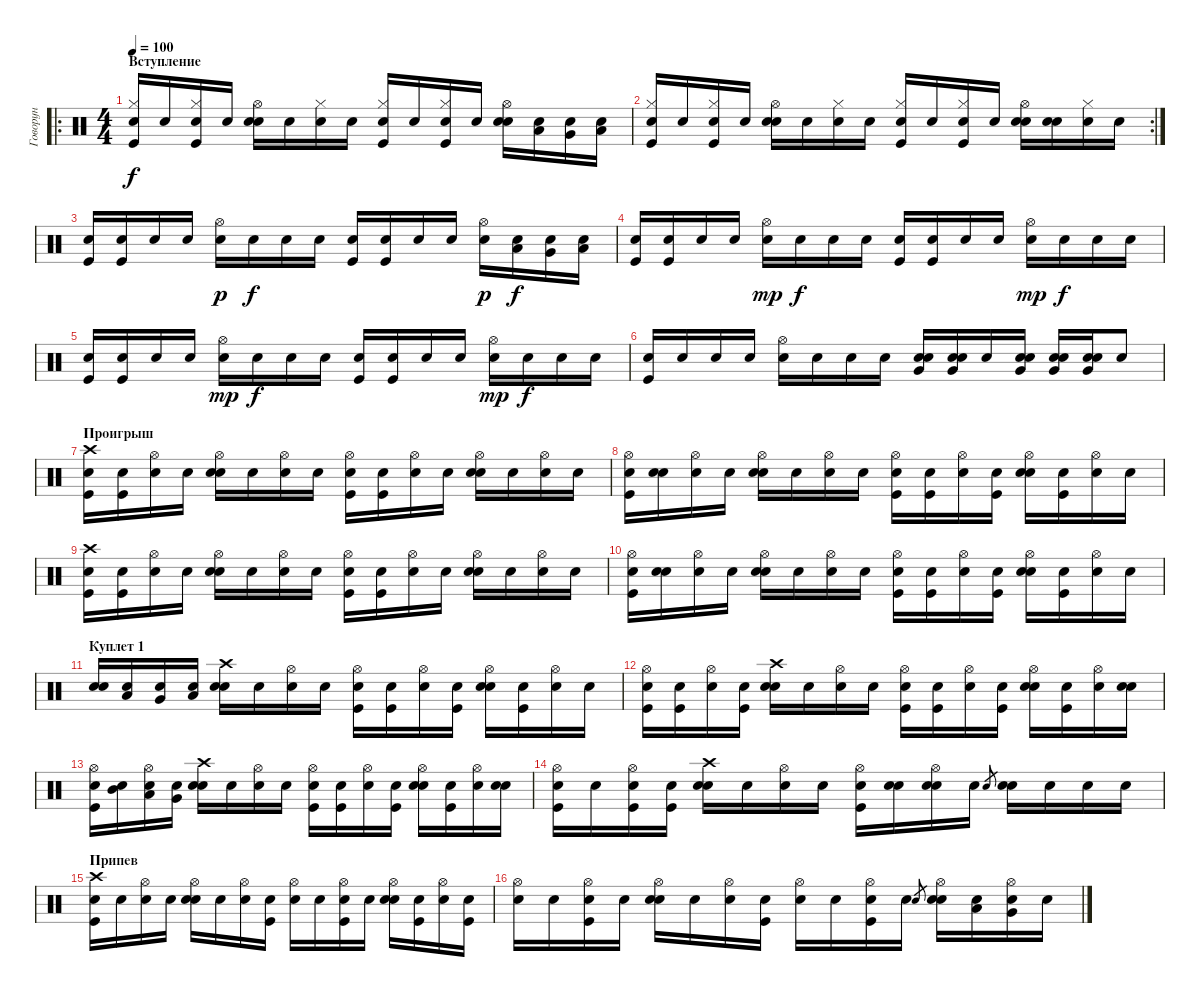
\track ("Говорун" "Говорун") {instrument percussion}
\staff {score}
\articulation defaults
\ro
\ts (4 4)
\section ("" "Вступление")
\tempo 100
\clef neutral
\ks c
("Kick (hit)" "Hi-Hat (closed)" "Snare (hit)"{x}).16{dy f volume 4} "Snare (hit)"{x}.16 ("Kick (hit)" "Hi-Hat (closed)" "Snare (hit)"{x}).16 "Snare (hit)"{x}.16 ("Electric Snare (hit)" "Hi-Hat (open)" "Snare (hit)"{x}).16 "Snare (hit)"{x}.16 ("Hi-Hat (closed)" "Snare (hit)"{x}).16 "Snare (hit)"{x}.16 ("Kick (hit)" "Hi-Hat (closed)" "Snare (hit)"{x}).16 "Snare (hit)"{x}.16 ("Kick (hit)" "Hi-Hat (closed)" "Snare (hit)"{x}).16 "Snare (hit)"{x}.16 ("Electric Snare (hit)" "Hi-Hat (open)" "Snare (hit)"{x}).16 ("Low Tom (hit)" "Snare (hit)"{x}).16 ("Very Low Tom (hit)" "Snare (hit)"{x}).16 ("Low Floor Tom (hit)" "Snare (hit)"{x}).16 |
\rc 2
("Kick (hit)" "Hi-Hat (closed)" "Snare (hit)"{x}).16 "Snare (hit)"{x}.16 ("Kick (hit)" "Hi-Hat (closed)" "Snare (hit)"{x}).16 "Snare (hit)"{x}.16 ("Electric Snare (hit)" "Hi-Hat (open)" "Snare (hit)"{x}).16 "Snare (hit)"{x}.16 ("Hi-Hat (closed)" "Snare (hit)"{x}).16 "Snare (hit)"{x}.16 ("Kick (hit)" "Hi-Hat (closed)" "Snare (hit)"{x}).16 "Snare (hit)"{x}.16 ("Kick (hit)" "Hi-Hat (closed)" "Snare (hit)"{x}).16 "Snare (hit)"{x}.16 ("Electric Snare (hit)" "Hi-Hat (open)" "Snare (hit)"{x}).16 ("Electric Snare (hit)" "Snare (hit)"{x}).16 ("Hi-Hat (closed)" "Snare (hit)"{x}).16 "Snare (hit)"{x}.16 |
("Kick (hit)" "Snare (hit)"{x}).16 ("Kick (hit)" "Snare (hit)"{x}).16 "Snare (hit)"{x}.16 "Snare (hit)"{x}.16 ("Hi-Hat (open)" "Snare (hit)"{x}).16{dy p} "Snare (hit)"{x}.16{dy f} "Snare (hit)"{x}.16 "Snare (hit)"{x}.16 ("Kick (hit)" "Snare (hit)"{x}).16 ("Kick (hit)" "Snare (hit)"{x}).16 "Snare (hit)"{x}.16 "Snare (hit)"{x}.16 ("Hi-Hat (open)" "Snare (hit)"{x}).16{dy p} ("Low Tom (hit)" "Snare (hit)"{x}).16{dy f} ("Very Low Tom (hit)" "Snare (hit)"{x}).16 ("Low Floor Tom (hit)" "Snare (hit)"{x}).16 |
("Kick (hit)" "Snare (hit)"{x}).16 ("Kick (hit)" "Snare (hit)"{x}).16 "Snare (hit)"{x}.16 "Snare (hit)"{x}.16 ("Hi-Hat (open)" "Snare (hit)"{x}).16{dy mp} "Snare (hit)"{x}.16{dy f} "Snare (hit)"{x}.16 "Snare (hit)"{x}.16 ("Kick (hit)" "Snare (hit)"{x}).16 ("Kick (hit)" "Snare (hit)"{x}).16 "Snare (hit)"{x}.16 "Snare (hit)"{x}.16 ("Hi-Hat (open)" "Snare (hit)"{x}).16{dy mp} "Snare (hit)"{x}.16{dy f} "Snare (hit)"{x}.16 "Snare (hit)"{x}.16 |
("Kick (hit)" "Snare (hit)"{x}).16 ("Kick (hit)" "Snare (hit)"{x}).16 "Snare (hit)"{x}.16 "Snare (hit)"{x}.16 ("Hi-Hat (open)" "Snare (hit)"{x}).16{dy mp} "Snare (hit)"{x}.16{dy f} "Snare (hit)"{x}.16 "Snare (hit)"{x}.16 ("Kick (hit)" "Snare (hit)"{x}).16 ("Kick (hit)" "Snare (hit)"{x}).16 "Snare (hit)"{x}.16 "Snare (hit)"{x}.16 ("Hi-Hat (open)" "Snare (hit)"{x}).16{dy mp} "Snare (hit)"{x}.16{dy f} "Snare (hit)"{x}.16 "Snare (hit)"{x}.16 |
("Kick (hit)" "Snare (hit)"{x}).16 "Snare (hit)"{x}.16 "Snare (hit)"{x}.16 "Snare (hit)"{x}.16 ("Hi-Hat (open)" "Snare (hit)"{x}).16 "Snare (hit)"{x}.16 "Snare (hit)"{x}.16 "Snare (hit)"{x}.16 ("Electric Snare (hit)" "Very Low Tom (hit)" "Snare (hit)"{x}).16 ("Electric Snare (hit)" "Very Low Tom (hit)" "Snare (hit)"{x}).16 "Snare (hit)"{x}.16 ("Electric Snare (hit)" "Very Low Tom (hit)" "Snare (hit)"{x}).16 ("Electric Snare (hit)" "Very Low Tom (hit)" "Snare (hit)"{x}).16 ("Electric Snare (hit)" "Very Low Tom (hit)" "Snare (hit)"{x}).16 "Snare (hit)"{x}.8 |
\section ("" "Проигрыш")
("Kick (hit)" "Crash high (hit)" "Snare (hit)"{x}).16 ("Kick (hit)" "Snare (hit)"{x}).16 ("Hi-Hat (open)" "Snare (hit)"{x}).16 "Snare (hit)"{x}.16 ("Snare (hit) 2" "Hi-Hat (open)" "Snare (hit)"{x}).16 "Snare (hit)"{x}.16 ("Hi-Hat (open)" "Snare (hit)"{x}).16 "Snare (hit)"{x}.16 ("Kick (hit)" "Hi-Hat (open)" "Snare (hit)"{x}).16 ("Kick (hit)" "Snare (hit)"{x}).16 ("Hi-Hat (open)" "Snare (hit)"{x}).16 "Snare (hit)"{x}.16 ("Snare (hit) 2" "Hi-Hat (open)" "Snare (hit)"{x}).16 "Snare (hit)"{x}.16 ("Hi-Hat (open)" "Snare (hit)"{x}).16 "Snare (hit)"{x}.16 |
("Kick (hit)" "Hi-Hat (open)" "Snare (hit)"{x}).16 ("Snare (hit) 2" "Snare (hit)"{x}).16 ("Hi-Hat (open)" "Snare (hit)"{x}).16 "Snare (hit)"{x}.16 ("Snare (hit) 2" "Hi-Hat (open)" "Snare (hit)"{x}).16 "Snare (hit)"{x}.16 ("Hi-Hat (open)" "Snare (hit)"{x}).16 "Snare (hit)"{x}.16 ("Kick (hit)" "Hi-Hat (open)" "Snare (hit)"{x}).16 ("Kick (hit)" "Snare (hit)"{x}).16 ("Hi-Hat (open)" "Snare (hit)"{x}).16 ("Kick (hit)" "Snare (hit)"{x}).16 ("Snare (hit) 2" "Hi-Hat (open)" "Snare (hit)"{x}).16 ("Kick (hit)" "Snare (hit)"{x}).16 ("Hi-Hat (open)" "Snare (hit)"{x}).16 "Snare (hit)"{x}.16 |
("Kick (hit)" "Crash high (hit)" "Snare (hit)"{x}).16 ("Kick (hit)" "Snare (hit)"{x}).16 ("Hi-Hat (open)" "Snare (hit)"{x}).16 "Snare (hit)"{x}.16 ("Snare (hit) 2" "Hi-Hat (open)" "Snare (hit)"{x}).16 "Snare (hit)"{x}.16 ("Hi-Hat (open)" "Snare (hit)"{x}).16 "Snare (hit)"{x}.16 ("Kick (hit)" "Hi-Hat (open)" "Snare (hit)"{x}).16 ("Kick (hit)" "Snare (hit)"{x}).16 ("Hi-Hat (open)" "Snare (hit)"{x}).16 "Snare (hit)"{x}.16 ("Snare (hit) 2" "Hi-Hat (open)" "Snare (hit)"{x}).16 "Snare (hit)"{x}.16 ("Hi-Hat (open)" "Snare (hit)"{x}).16 "Snare (hit)"{x}.16 |
("Kick (hit)" "Hi-Hat (open)" "Snare (hit)"{x}).16 ("Snare (hit) 2" "Snare (hit)"{x}).16 ("Hi-Hat (open)" "Snare (hit)"{x}).16 "Snare (hit)"{x}.16 ("Snare (hit) 2" "Hi-Hat (open)" "Snare (hit)"{x}).16 "Snare (hit)"{x}.16 ("Hi-Hat (open)" "Snare (hit)"{x}).16 "Snare (hit)"{x}.16 ("Kick (hit)" "Hi-Hat (open)" "Snare (hit)"{x}).16 ("Kick (hit)" "Snare (hit)"{x}).16 ("Hi-Hat (open)" "Snare (hit)"{x}).16 ("Kick (hit)" "Snare (hit)"{x}).16 ("Snare (hit) 2" "Hi-Hat (open)" "Snare (hit)"{x}).16 ("Kick (hit)" "Snare (hit)"{x}).16 ("Hi-Hat (open)" "Snare (hit)"{x}).16 "Snare (hit)"{x}.16 |
\section ("" "Куплет 1")
("Snare (hit) 2" "Snare (hit)"{x}).16 ("Low Tom (hit)" "Snare (hit)"{x}).16 ("Very Low Tom (hit)" "Snare (hit)"{x}).16 ("Low Floor Tom (hit)" "Snare (hit)"{x}).16 ("Crash high (hit)" "Snare (hit) 2" "Snare (hit)"{x}).16 "Snare (hit)"{x}.16 ("Hi-Hat (open)" "Snare (hit)"{x}).16 "Snare (hit)"{x}.16 ("Kick (hit)" "Hi-Hat (open)" "Snare (hit)"{x}).16 ("Kick (hit)" "Snare (hit)"{x}).16 ("Hi-Hat (open)" "Snare (hit)"{x}).16 ("Kick (hit)" "Snare (hit)"{x}).16 ("Snare (hit) 2" "Hi-Hat (open)" "Snare (hit)"{x}).16 ("Kick (hit)" "Snare (hit)"{x}).16 ("Hi-Hat (open)" "Snare (hit)"{x}).16 "Snare (hit)"{x}.16 |
("Kick (hit)" "Hi-Hat (open)" "Snare (hit)"{x}).16 ("Kick (hit)" "Snare (hit)"{x}).16 ("Hi-Hat (open)" "Snare (hit)"{x}).16 ("Kick (hit)" "Snare (hit)"{x}).16 ("Crash high (hit)" "Snare (hit) 2" "Snare (hit)"{x}).16 "Snare (hit)"{x}.16 ("Hi-Hat (open)" "Snare (hit)"{x}).16 "Snare (hit)"{x}.16 ("Kick (hit)" "Hi-Hat (open)" "Snare (hit)"{x}).16 ("Kick (hit)" "Snare (hit)"{x}).16 ("Hi-Hat (open)" "Snare (hit)"{x}).16 ("Kick (hit)" "Snare (hit)"{x}).16 ("Snare (hit) 2" "Hi-Hat (open)" "Snare (hit)"{x}).16 ("Kick (hit)" "Snare (hit)"{x}).16 ("Hi-Hat (open)" "Snare (hit)"{x}).16 ("Snare (hit) 2" "Snare (hit)"{x}).16 |
("Kick (hit)" "Hi-Hat (open)" "Snare (hit)"{x}).16 ("Mid Tom (hit)" "Snare (hit)"{x}).16 ("Low Tom (hit)" "Hi-Hat (open)" "Snare (hit)"{x}).16 ("Very Low Tom (hit)" "Snare (hit)"{x}).16 ("Crash high (hit)" "Snare (hit) 2" "Snare (hit)"{x}).16 "Snare (hit)"{x}.16 ("Hi-Hat (open)" "Snare (hit)"{x}).16 "Snare (hit)"{x}.16 ("Kick (hit)" "Hi-Hat (open)" "Snare (hit)"{x}).16 ("Kick (hit)" "Snare (hit)"{x}).16 ("Hi-Hat (open)" "Snare (hit)"{x}).16 ("Kick (hit)" "Snare (hit)"{x}).16 ("Snare (hit) 2" "Hi-Hat (open)" "Snare (hit)"{x}).16 ("Kick (hit)" "Snare (hit)"{x}).16 ("Hi-Hat (open)" "Snare (hit)"{x}).16 ("Snare (hit) 2" "Snare (hit)"{x}).16 |
("Kick (hit)" "Hi-Hat (open)" "Snare (hit)"{x}).16 "Snare (hit)"{x}.16 ("Kick (hit)" "Hi-Hat (open)" "Snare (hit)"{x}).16 ("Kick (hit)" "Snare (hit)"{x}).16 ("Crash high (hit)" "Snare (hit) 2" "Snare (hit)"{x}).16 "Snare (hit)"{x}.16 ("Hi-Hat (open)" "Snare (hit)"{x}).16 "Snare (hit)"{x}.16 ("Kick (hit)" "Hi-Hat (open)" "Snare (hit)"{x}).16 ("Snare (hit) 2" "Snare (hit)"{x}).16 ("Snare (hit) 2" "Hi-Hat (open)" "Snare (hit)"{x}).16 "Snare (hit)"{x}.16 "Snare (hit) 2".8{gr} ("Snare (hit) 2" "Snare (hit)"{x}).16 "Snare (hit)"{x}.16 "Snare (hit)"{x}.16 "Snare (hit)"{x}.16 |
\section ("" "Припев")
("Kick (hit)" "Crash high (hit)" "Snare (hit)"{x}).16 "Snare (hit)"{x}.16 ("Hi-Hat (open)" "Snare (hit)"{x}).16 "Snare (hit)"{x}.16 ("Snare (hit) 2" "Hi-Hat (open)" "Snare (hit)"{x}).16 "Snare (hit)"{x}.16 ("Hi-Hat (open)" "Snare (hit)"{x}).16 ("Kick (hit)" "Snare (hit)"{x}).16 ("Hi-Hat (open)" "Snare (hit)"{x}).16 "Snare (hit)"{x}.16 ("Kick (hit)" "Hi-Hat (open)" "Snare (hit)"{x}).16 "Snare (hit)"{x}.16 ("Snare (hit) 2" "Hi-Hat (open)" "Snare (hit)"{x}).16 ("Kick (hit)" "Snare (hit)"{x}).16 ("Hi-Hat (open)" "Snare (hit)"{x}).16 ("Kick (hit)" "Snare (hit)"{x}).16 |
("Hi-Hat (open)" "Snare (hit)"{x}).16 "Snare (hit)"{x}.16 ("Kick (hit)" "Hi-Hat (open)" "Snare (hit)"{x}).16 "Snare (hit)"{x}.16 ("Snare (hit) 2" "Hi-Hat (open)" "Snare (hit)"{x}).16 "Snare (hit)"{x}.16 ("Hi-Hat (open)" "Snare (hit)"{x}).16 ("Kick (hit)" "Snare (hit)"{x}).16 ("Hi-Hat (open)" "Snare (hit)"{x}).16 "Snare (hit)"{x}.16 ("Kick (hit)" "Hi-Hat (open)" "Snare (hit)"{x}).16 "Snare (hit)"{x}.16 "Snare (hit) 2".8{gr} ("Snare (hit) 2" "Hi-Hat (open)" "Snare (hit)"{x}).16 ("Low Tom (hit)" "Snare (hit)"{x}).16 ("Very Low Tom (hit)" "Hi-Hat (open)" "Snare (hit)"{x}).16 "Snare (hit)"{x}.16
